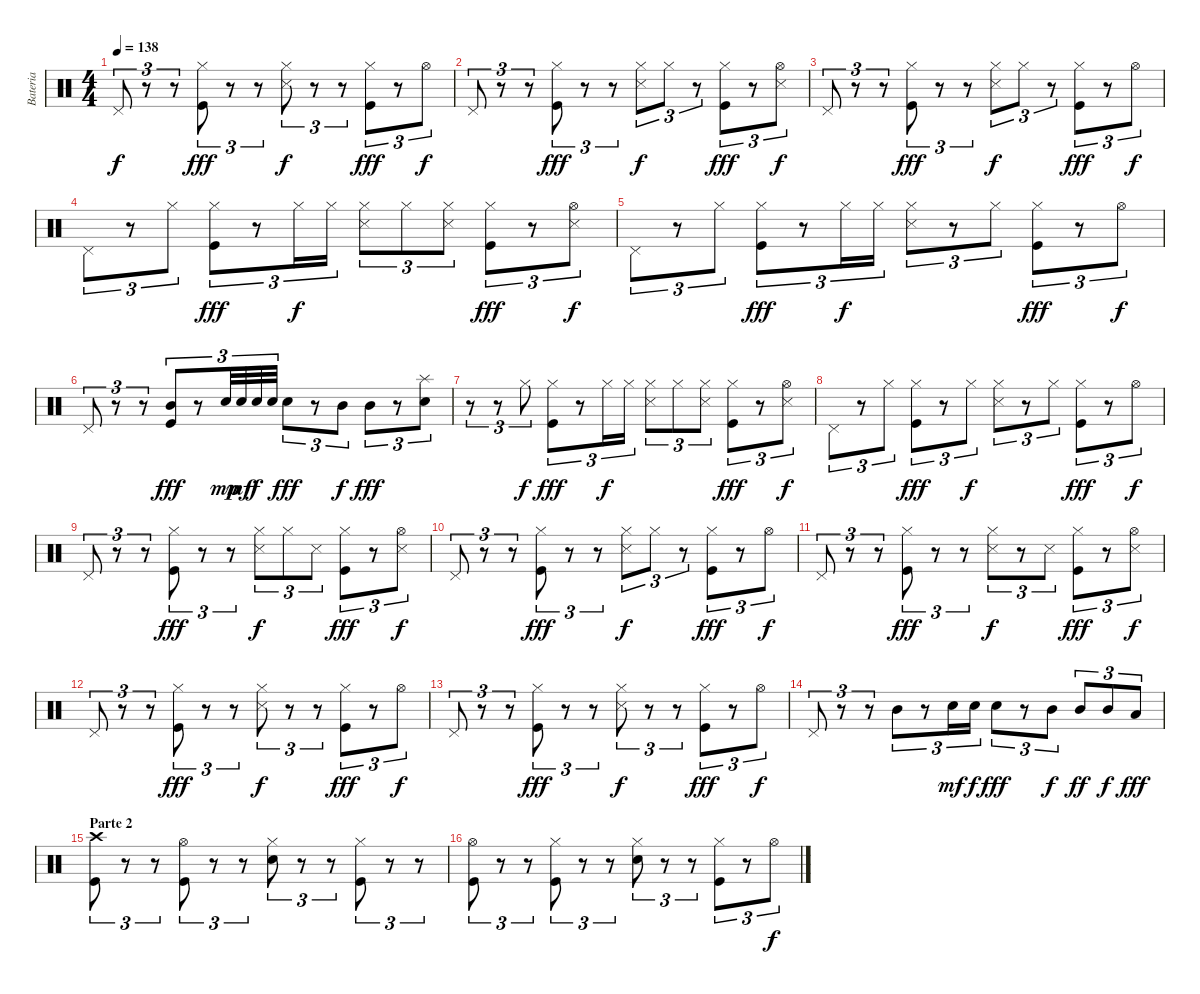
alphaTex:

\track ("Bateria" "Bateria") {instrument percussion}
\staff {score}
\articulation defaults
\ts (4 4)
\tempo 138
\clef neutral
\ks c "Pedal Hi-Hat (hit)".8{tu (3 2) dy f}
r.8{tu (3 2)} r.8{tu (3 2)} ("Kick (hit)" "Hi-Hat (closed)").8{tu (3 2) dy fff} r.8{tu (3 2)} r.8{tu (3 2)} ("Snare (side stick) 3" "Hi-Hat (closed)").8{tu (3 2) dy f} r.8{tu (3 2)} r.8{tu (3 2)} ("Kick (hit)" "Hi-Hat (closed)").8{tu (3 2) dy fff} r.8{tu (3 2)} "Hi-Hat (open)".8{tu (3 2) dy f} |
"Pedal Hi-Hat (hit)".8{tu (3 2)} r.8{tu (3 2)} r.8{tu (3 2)} ("Kick (hit)" "Hi-Hat (closed)").8{tu (3 2) dy fff} r.8{tu (3 2)} r.8{tu (3 2)} ("Snare (side stick) 3" "Hi-Hat (closed)").8{tu (3 2) dy f} "Hi-Hat (closed)".8{tu (3 2)} r.8{tu (3 2)} ("Kick (hit)" "Hi-Hat (closed)").8{tu (3 2) dy fff} r.8{tu (3 2)} ("Snare (side stick) 3" "Hi-Hat (open)").8{tu (3 2) dy f} |
"Pedal Hi-Hat (hit)".8{tu (3 2)} r.8{tu (3 2)} r.8{tu (3 2)} ("Kick (hit)" "Hi-Hat (closed)").8{tu (3 2) dy fff} r.8{tu (3 2)} r.8{tu (3 2)} ("Snare (side stick) 3" "Hi-Hat (closed)").8{tu (3 2) dy f} "Hi-Hat (closed)".8{tu (3 2)} r.8{tu (3 2)} ("Kick (hit)" "Hi-Hat (closed)").8{tu (3 2) dy fff} r.8{tu (3 2)} "Hi-Hat (open)".8{tu (3 2) dy f} |
"Pedal Hi-Hat (hit)".8{tu (3 2)} r.8{tu (3 2)} "Hi-Hat (closed)".8{tu (3 2)} ("Kick (hit)" "Hi-Hat (closed)").8{tu (3 2) dy fff} r.8{tu (3 2)} "Hi-Hat (closed)".16{tu (3 2) dy f} "Hi-Hat (closed)".16{tu (3 2)} ("Snare (side stick) 3" "Hi-Hat (closed)").8{tu (3 2)} "Hi-Hat (closed)".8{tu (3 2)} ("Snare (side stick) 3" "Hi-Hat (closed)").8{tu (3 2)} ("Kick (hit)" "Hi-Hat (closed)").8{tu (3 2) dy fff} r.8{tu (3 2)} ("Snare (side stick) 3" "Hi-Hat (open)").8{tu (3 2) dy f} |
"Pedal Hi-Hat (hit)".8{tu (3 2)} r.8{tu (3 2)} "Hi-Hat (closed)".8{tu (3 2)} ("Kick (hit)" "Hi-Hat (closed)").8{tu (3 2) dy fff} r.8{tu (3 2)} "Hi-Hat (closed)".16{tu (3 2) dy f} "Hi-Hat (closed)".16{tu (3 2)} ("Snare (side stick) 3" "Hi-Hat (closed)").8{tu (3 2)} r.8{tu (3 2)} "Hi-Hat (closed)".8{tu (3 2)} ("Kick (hit)" "Hi-Hat (closed)").8{tu (3 2) dy fff} r.8{tu (3 2)} "Hi-Hat (open)".8{tu (3 2) dy f} |
"Pedal Hi-Hat (hit)".8{tu (3 2)} r.8{tu (3 2)} r.8{tu (3 2)} ("Kick (hit)" "Mid Tom (hit)").8{tu (3 2) dy fff} r.8{tu (3 2)} "Electric Snare (hit)".32{tu (3 2) dy mp} "Electric Snare (hit)".32{tu (3 2) dy mf} "Electric Snare (hit)".32{tu (3 2) dy f} "Electric Snare (hit)".32{tu (3 2)} "Electric Snare (hit)".8{tu (3 2) dy fff} r.8{tu (3 2)} "Mid Tom (hit)".8{tu (3 2) dy f} "Mid Tom (hit)".8{tu (3 2) dy fff} r.8{tu (3 2)} ("Electric Snare (hit)" "Splash (hit)").8{tu (3 2)} |
r.8{tu (3 2)} r.8{tu (3 2)} "Hi-Hat (closed)".8{tu (3 2) dy f} ("Kick (hit)" "Hi-Hat (closed)").8{tu (3 2) dy fff} r.8{tu (3 2)} "Hi-Hat (closed)".16{tu (3 2) dy f} "Hi-Hat (closed)".16{tu (3 2)} ("Snare (side stick) 3" "Hi-Hat (closed)").8{tu (3 2)} "Hi-Hat (closed)".8{tu (3 2)} ("Snare (side stick) 3" "Hi-Hat (closed)").8{tu (3 2)} ("Kick (hit)" "Hi-Hat (closed)").8{tu (3 2) dy fff} r.8{tu (3 2)} ("Snare (side stick) 3" "Hi-Hat (open)").8{tu (3 2) dy f} |
"Pedal Hi-Hat (hit)".8{tu (3 2)} r.8{tu (3 2)} "Hi-Hat (closed)".8{tu (3 2)} ("Kick (hit)" "Hi-Hat (closed)").8{tu (3 2) dy fff} r.8{tu (3 2)} "Hi-Hat (closed)".8{tu (3 2) dy f} ("Snare (side stick) 3" "Hi-Hat (closed)").8{tu (3 2)} r.8{tu (3 2)} "Hi-Hat (closed)".8{tu (3 2)} ("Kick (hit)" "Hi-Hat (closed)").8{tu (3 2) dy fff} r.8{tu (3 2)} "Hi-Hat (open)".8{tu (3 2) dy f} |
"Pedal Hi-Hat (hit)".8{tu (3 2)} r.8{tu (3 2)} r.8{tu (3 2)} ("Kick (hit)" "Hi-Hat (closed)").8{tu (3 2) dy fff} r.8{tu (3 2)} r.8{tu (3 2)} ("Snare (side stick) 3" "Hi-Hat (closed)").8{tu (3 2) dy f} "Hi-Hat (closed)".8{tu (3 2)} "Snare (side stick) 3".8{tu (3 2)} ("Kick (hit)" "Hi-Hat (closed)").8{tu (3 2) dy fff} r.8{tu (3 2)} ("Snare (side stick) 3" "Hi-Hat (open)").8{tu (3 2) dy f} |
"Pedal Hi-Hat (hit)".8{tu (3 2)} r.8{tu (3 2)} r.8{tu (3 2)} ("Kick (hit)" "Hi-Hat (closed)").8{tu (3 2) dy fff} r.8{tu (3 2)} r.8{tu (3 2)} ("Snare (side stick) 3" "Hi-Hat (closed)").8{tu (3 2) dy f} "Hi-Hat (closed)".8{tu (3 2)} r.8{tu (3 2)} ("Kick (hit)" "Hi-Hat (closed)").8{tu (3 2) dy fff} r.8{tu (3 2)} "Hi-Hat (open)".8{tu (3 2) dy f} |
"Pedal Hi-Hat (hit)".8{tu (3 2)} r.8{tu (3 2)} r.8{tu (3 2)} ("Kick (hit)" "Hi-Hat (closed)").8{tu (3 2) dy fff} r.8{tu (3 2)} r.8{tu (3 2)} ("Snare (side stick) 3" "Hi-Hat (closed)").8{tu (3 2) dy f} r.8{tu (3 2)} "Snare (side stick) 3".8{tu (3 2)} ("Kick (hit)" "Hi-Hat (closed)").8{tu (3 2) dy fff} r.8{tu (3 2)} ("Snare (side stick) 3" "Hi-Hat (open)").8{tu (3 2) dy f} |
"Pedal Hi-Hat (hit)".8{tu (3 2)} r.8{tu (3 2)} r.8{tu (3 2)} ("Kick (hit)" "Hi-Hat (closed)").8{tu (3 2) dy fff} r.8{tu (3 2)} r.8{tu (3 2)} ("Snare (side stick) 3" "Hi-Hat (closed)").8{tu (3 2) dy f} r.8{tu (3 2)} r.8{tu (3 2)} ("Kick (hit)" "Hi-Hat (closed)").8{tu (3 2) dy fff} r.8{tu (3 2)} "Hi-Hat (open)".8{tu (3 2) dy f} |
"Pedal Hi-Hat (hit)".8{tu (3 2)} r.8{tu (3 2)} r.8{tu (3 2)} ("Kick (hit)" "Hi-Hat (closed)").8{tu (3 2) dy fff} r.8{tu (3 2)} r.8{tu (3 2)} ("Snare (side stick) 3" "Hi-Hat (closed)").8{tu (3 2) dy f} r.8{tu (3 2)} r.8{tu (3 2)} ("Kick (hit)" "Hi-Hat (closed)").8{tu (3 2) dy fff} r.8{tu (3 2)} "Hi-Hat (open)".8{tu (3 2) dy f} |
"Pedal Hi-Hat (hit)".8{tu (3 2)} r.8{tu (3 2)} r.8{tu (3 2)} "Mid Tom (hit)".8{tu (3 2)} r.8{tu (3 2)} "Electric Snare (hit)".16{tu (3 2) dy mf} "Electric Snare (hit)".16{tu (3 2) dy f} "Electric Snare (hit)".8{tu (3 2) dy fff} r.8{tu (3 2)} "Mid Tom (hit)".8{tu (3 2) dy f} "Mid Tom (hit)".8{tu (3 2) dy ff} "Mid Tom (hit)".8{tu (3 2) dy f} "Low Tom (hit)".8{tu (3 2) dy fff} |
\section ("" "Parte 2")
("Kick (hit)" "Crash high (hit)").8{tu (3 2)} r.8{tu (3 2)} r.8{tu (3 2)} ("Kick (hit)" "Hi-Hat (open)").8{tu (3 2)} r.8{tu (3 2)} r.8{tu (3 2)} ("Electric Snare (hit)" "Hi-Hat (closed)").8{tu (3 2)} r.8{tu (3 2)} r.8{tu (3 2)} ("Kick (hit)" "Hi-Hat (closed)").8{tu (3 2)} r.8{tu (3 2)} r.8{tu (3 2)} |
("Kick (hit)" "Hi-Hat (open)").8{tu (3 2)} r.8{tu (3 2)} r.8{tu (3 2)} ("Kick (hit)" "Hi-Hat (closed)").8{tu (3 2)} r.8{tu (3 2)} r.8{tu (3 2)} ("Electric Snare (hit)" "Hi-Hat (closed)").8{tu (3 2)} r.8{tu (3 2)} r.8{tu (3 2)} ("Kick (hit)" "Hi-Hat (closed)").8{tu (3 2)} r.8{tu (3 2)} "Hi-Hat (open)".8{tu (3 2) dy f}
